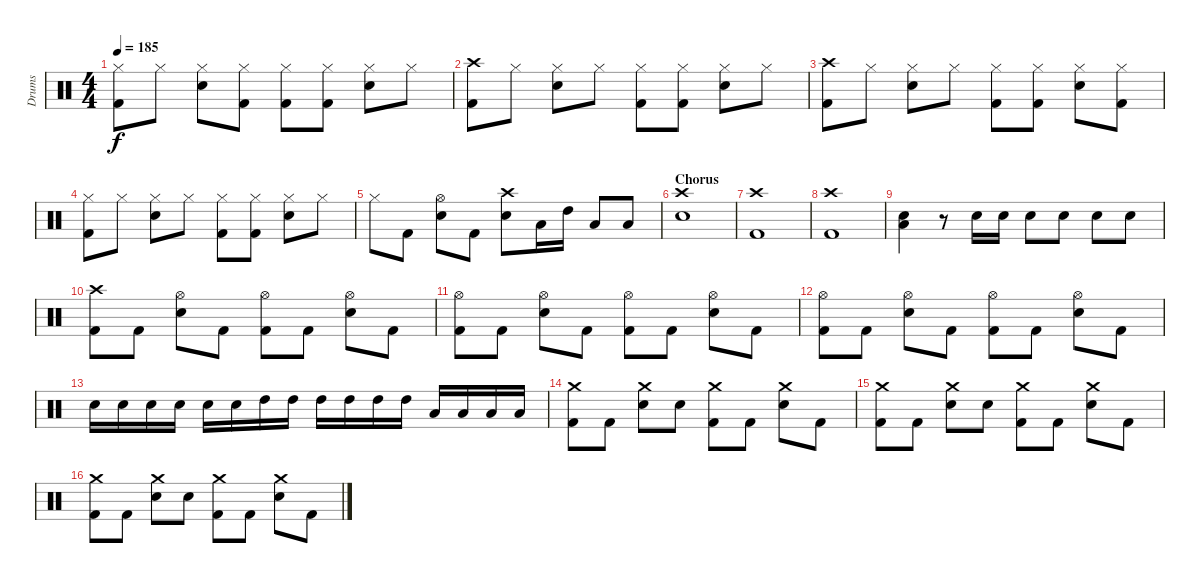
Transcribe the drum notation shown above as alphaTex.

\track ("Drums" "Drums") {instrument percussion}
\staff {score}
\articulation defaults
\ts (4 4)
\tempo 185
\clef neutral
\ks c
("Hi-Hat (closed)" "Kick (hit) 2").8{dy f} "Hi-Hat (closed)".8 ("Hi-Hat (closed)" "Electric Snare (hit)").8 ("Hi-Hat (closed)" "Kick (hit) 2").8 ("Hi-Hat (closed)" "Kick (hit) 2").8 ("Hi-Hat (closed)" "Kick (hit) 2").8 ("Hi-Hat (closed)" "Electric Snare (hit)").8 "Hi-Hat (closed)".8 |
("Crash high (hit)" "Kick (hit) 2").8 "Hi-Hat (closed)".8 ("Hi-Hat (closed)" "Electric Snare (hit)").8 "Hi-Hat (closed)".8 ("Hi-Hat (closed)" "Kick (hit) 2").8 ("Hi-Hat (closed)" "Kick (hit) 2").8 ("Hi-Hat (closed)" "Electric Snare (hit)").8 "Hi-Hat (closed)".8 |
("Crash high (hit)" "Kick (hit) 2").8 "Hi-Hat (closed)".8 ("Hi-Hat (closed)" "Electric Snare (hit)").8 "Hi-Hat (closed)".8 ("Hi-Hat (closed)" "Kick (hit) 2").8 ("Hi-Hat (closed)" "Kick (hit) 2").8 ("Hi-Hat (closed)" "Electric Snare (hit)").8 ("Hi-Hat (closed)" "Kick (hit) 2").8 |
("Hi-Hat (closed)" "Kick (hit) 2").8 "Hi-Hat (closed)".8 ("Hi-Hat (closed)" "Electric Snare (hit)").8 "Hi-Hat (closed)".8 ("Hi-Hat (closed)" "Kick (hit) 2").8 ("Hi-Hat (closed)" "Kick (hit) 2").8 ("Hi-Hat (closed)" "Electric Snare (hit)").8 "Hi-Hat (closed)".8 |
"Hi-Hat (closed)".8 "Kick (hit) 2".8 ("Hi-Hat (open)" "Electric Snare (hit)").8 "Kick (hit) 2".8 ("Crash high (hit)" "Electric Snare (hit)").8 "Low Tom (hit)".16 "High Tom (hit)".16 "Low Tom (hit)".8 "Low Tom (hit)".8 |
\section ("" "Chorus")
("Crash high (hit)" "Electric Snare (hit)").1 |
("Crash high (hit)" "Kick (hit) 2").1 |
("Crash high (hit)" "Kick (hit) 2").1 |
("Electric Snare (hit)" "Low Floor Tom (hit)").4 r.8 "Electric Snare (hit)".16 "Electric Snare (hit)".16 "Electric Snare (hit)".8 "Electric Snare (hit)".8 "Electric Snare (hit)".8 "Electric Snare (hit)".8 |
("Crash high (hit)" "Kick (hit) 2").8 "Kick (hit) 2".8 ("Hi-Hat (open)" "Electric Snare (hit)").8 "Kick (hit) 2".8 ("Hi-Hat (open)" "Kick (hit) 2").8 "Kick (hit) 2".8 ("Hi-Hat (open)" "Electric Snare (hit)").8 "Kick (hit) 2".8 |
("Hi-Hat (open)" "Kick (hit) 2").8 "Kick (hit) 2".8 ("Hi-Hat (open)" "Electric Snare (hit)").8 "Kick (hit) 2".8 ("Hi-Hat (open)" "Kick (hit) 2").8 "Kick (hit) 2".8 ("Hi-Hat (open)" "Electric Snare (hit)").8 "Kick (hit) 2".8 |
("Hi-Hat (open)" "Kick (hit) 2").8 "Kick (hit) 2".8 ("Hi-Hat (open)" "Electric Snare (hit)").8 "Kick (hit) 2".8 ("Hi-Hat (open)" "Kick (hit) 2").8 "Kick (hit) 2".8 ("Hi-Hat (open)" "Electric Snare (hit)").8 "Kick (hit) 2".8 |
"Electric Snare (hit)".16 "Electric Snare (hit)".16 "Electric Snare (hit)".16 "Electric Snare (hit)".16 "Electric Snare (hit)".16 "Electric Snare (hit)".16 "High Tom (hit)".16 "High Tom (hit)".16 "High Tom (hit)".16 "High Tom (hit)".16 "High Tom (hit)".16 "High Tom (hit)".16 "Low Tom (hit)".16 "Low Tom (hit)".16 "Low Tom (hit)".16 "Low Tom (hit)".16 |
("Crash medium (hit)" "Kick (hit) 2").8 "Kick (hit) 2".8 ("Crash medium (hit)" "Electric Snare (hit)").8 "Electric Snare (hit)".8 ("Crash medium (hit)" "Kick (hit) 2").8 "Kick (hit) 2".8 ("Crash medium (hit)" "Electric Snare (hit)").8 "Kick (hit) 2".8 |
("Crash medium (hit)" "Kick (hit) 2").8 "Kick (hit) 2".8 ("Crash medium (hit)" "Electric Snare (hit)").8 "Electric Snare (hit)".8 ("Crash medium (hit)" "Kick (hit) 2").8 "Kick (hit) 2".8 ("Crash medium (hit)" "Electric Snare (hit)").8 "Kick (hit) 2".8 |
("Crash medium (hit)" "Kick (hit) 2").8 "Kick (hit) 2".8 ("Crash medium (hit)" "Electric Snare (hit)").8 "Electric Snare (hit)".8 ("Crash medium (hit)" "Kick (hit) 2").8 "Kick (hit) 2".8 ("Crash medium (hit)" "Electric Snare (hit)").8 "Kick (hit) 2".8
